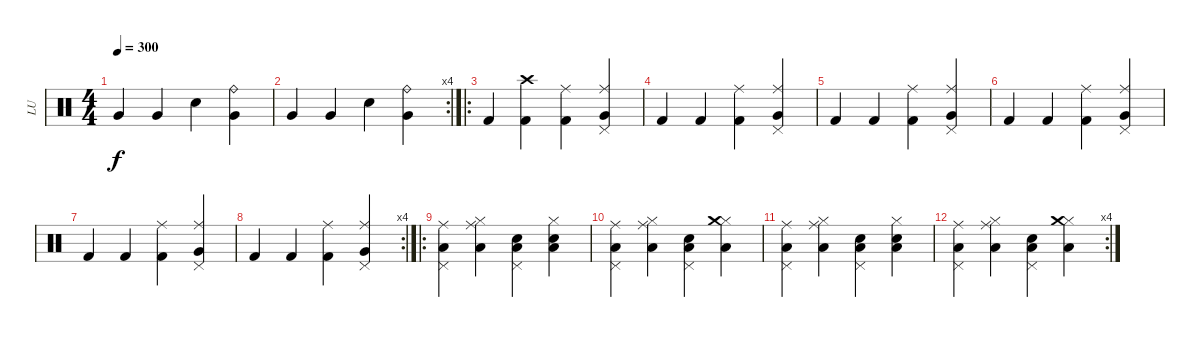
\track ("LU" "LU") {instrument percussion}
\staff {score}
\articulation defaults
\ts (4 4)
\tempo 300
\clef neutral
\ks c "Very Low Tom (hit)".4{dy f} "Very Low Tom (hit)".4 "Snare (hit) 2".4
("Ride (bell)" "Very Low Tom (hit)").4 |
\rc 4 "Very Low Tom (hit)".4 "Very Low Tom (hit)".4 "Snare (hit) 2".4
("Ride (bell)" "Very Low Tom (hit)").4 |
\ro "Kick (hit) 2".4
("Crash high (hit)" "Kick (hit) 2").4 ("Ride (middle)" "Kick (hit) 2").4 ("Very Low Tom (hit)" "Ride (middle)" "Pedal Hi-Hat (hit)").4 |
"Kick (hit) 2".4 "Kick (hit) 2".4 ("Ride (middle)" "Kick (hit) 2").4 ("Ride (middle)" "Pedal Hi-Hat (hit)" "Very Low Tom (hit)").4 |
"Kick (hit) 2".4 "Kick (hit) 2".4 ("Ride (middle)" "Kick (hit) 2").4 ("Ride (middle)" "Pedal Hi-Hat (hit)" "Very Low Tom (hit)").4 |
"Kick (hit) 2".4 "Kick (hit) 2".4 ("Ride (middle)" "Kick (hit) 2").4 ("Ride (middle)" "Pedal Hi-Hat (hit)" "Very Low Tom (hit)").4 |
"Kick (hit) 2".4 "Kick (hit) 2".4 ("Ride (middle)" "Kick (hit) 2").4 ("Ride (middle)" "Pedal Hi-Hat (hit)" "Very Low Tom (hit)").4 |
\rc 4 "Kick (hit) 2".4 "Kick (hit) 2".4
("Ride (middle)" "Kick (hit) 2").4 ("Ride (middle)" "Pedal Hi-Hat (hit)" "Very Low Tom (hit)").4 |
\ro
("Pedal Hi-Hat (hit)" "Ride (middle)" "Low Floor Tom (hit)").4 ("Hi-Hat (closed)" "Ride (middle)" "Low Floor Tom (hit)").4 ("Pedal Hi-Hat (hit)" "Snare (hit) 2" "Low Floor Tom (hit)").4 ("Hi-Hat (closed)" "Snare (hit) 2" "Low Floor Tom (hit)").4 |
("Pedal Hi-Hat (hit)" "Ride (middle)" "Low Floor Tom (hit)").4 ("Hi-Hat (closed)" "Ride (middle)" "Low Floor Tom (hit)").4 ("Pedal Hi-Hat (hit)" "Snare (hit) 2" "Low Floor Tom (hit)").4 ("Hi-Hat (closed)" "Crash medium (hit)" "Low Floor Tom (hit)").4 |
("Pedal Hi-Hat (hit)" "Ride (middle)" "Low Floor Tom (hit)").4 ("Hi-Hat (closed)" "Ride (middle)" "Low Floor Tom (hit)").4 ("Pedal Hi-Hat (hit)" "Snare (hit) 2" "Low Floor Tom (hit)").4 ("Hi-Hat (closed)" "Snare (hit) 2" "Low Floor Tom (hit)").4 |
\rc 4
("Pedal Hi-Hat (hit)" "Ride (middle)" "Low Floor Tom (hit)").4 ("Hi-Hat (closed)" "Ride (middle)" "Low Floor Tom (hit)").4 ("Pedal Hi-Hat (hit)" "Snare (hit) 2" "Low Floor Tom (hit)").4 ("Hi-Hat (closed)" "Crash medium (hit)" "Low Floor Tom (hit)").4
